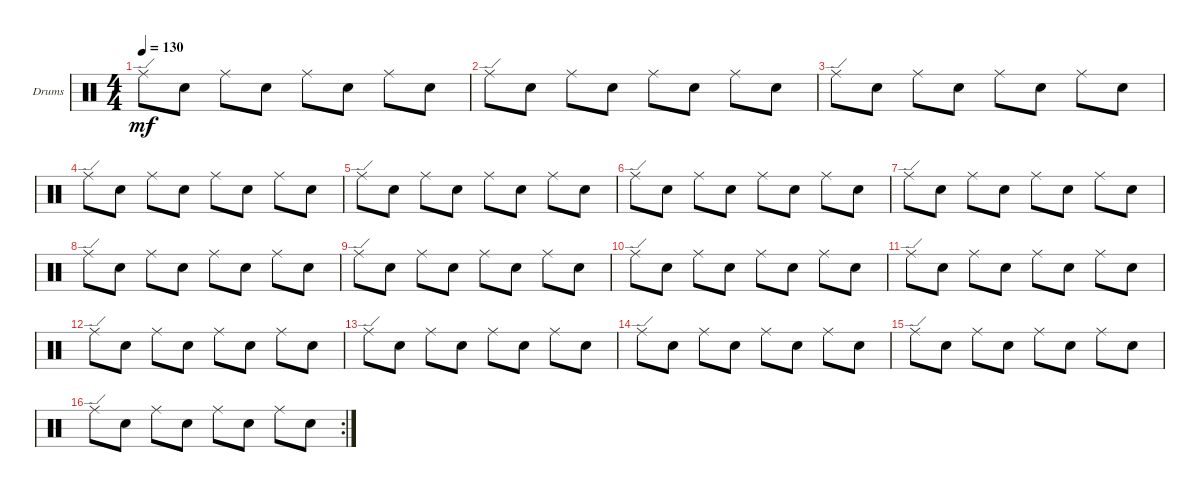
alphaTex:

\defaultSystemsLayout 4
\bracketExtendMode groupsimilarinstruments
\firstSystemTrackNameOrientation horizontal
\otherSystemsTrackNameOrientation horizontal
\track ("Drumkit" "Drums") {instrument percussion}
\staff {score}
\articulation defaults
\ts (4 4)
\tempo 130
\clef neutral
\ks c "Ride (edge)".8{dy mf} "Snare (hit) 2".8 "Ride (middle)".8 "Snare (hit) 2".8 "Ride (middle)".8 "Snare (hit) 2".8 "Ride (middle)".8 "Snare (hit) 2".8
|
"Ride (edge)".8 "Snare (hit) 2".8 "Ride (middle)".8 "Snare (hit) 2".8 "Ride (middle)".8 "Snare (hit) 2".8 "Ride (middle)".8 "Snare (hit) 2".8 |
"Ride (edge)".8 "Snare (hit) 2".8 "Ride (middle)".8 "Snare (hit) 2".8 "Ride (middle)".8 "Snare (hit) 2".8 "Ride (middle)".8 "Snare (hit) 2".8 |
"Ride (edge)".8 "Snare (hit) 2".8 "Ride (middle)".8 "Snare (hit) 2".8 "Ride (middle)".8 "Snare (hit) 2".8 "Ride (middle)".8 "Snare (hit) 2".8 |
"Ride (edge)".8 "Snare (hit) 2".8 "Ride (middle)".8 "Snare (hit) 2".8 "Ride (middle)".8 "Snare (hit) 2".8 "Ride (middle)".8 "Snare (hit) 2".8 |
"Ride (edge)".8 "Snare (hit) 2".8 "Ride (middle)".8 "Snare (hit) 2".8 "Ride (middle)".8 "Snare (hit) 2".8 "Ride (middle)".8 "Snare (hit) 2".8 |
"Ride (edge)".8 "Snare (hit) 2".8 "Ride (middle)".8 "Snare (hit) 2".8 "Ride (middle)".8 "Snare (hit) 2".8 "Ride (middle)".8 "Snare (hit) 2".8 |
"Ride (edge)".8 "Snare (hit) 2".8 "Ride (middle)".8 "Snare (hit) 2".8 "Ride (middle)".8 "Snare (hit) 2".8 "Ride (middle)".8 "Snare (hit) 2".8 |
"Ride (edge)".8 "Snare (hit) 2".8 "Ride (middle)".8 "Snare (hit) 2".8 "Ride (middle)".8 "Snare (hit) 2".8 "Ride (middle)".8 "Snare (hit) 2".8 |
"Ride (edge)".8 "Snare (hit) 2".8 "Ride (middle)".8 "Snare (hit) 2".8 "Ride (middle)".8 "Snare (hit) 2".8 "Ride (middle)".8 "Snare (hit) 2".8 |
"Ride (edge)".8 "Snare (hit) 2".8 "Ride (middle)".8 "Snare (hit) 2".8 "Ride (middle)".8 "Snare (hit) 2".8 "Ride (middle)".8 "Snare (hit) 2".8 |
"Ride (edge)".8 "Snare (hit) 2".8 "Ride (middle)".8 "Snare (hit) 2".8 "Ride (middle)".8 "Snare (hit) 2".8 "Ride (middle)".8 "Snare (hit) 2".8 |
"Ride (edge)".8 "Snare (hit) 2".8 "Ride (middle)".8 "Snare (hit) 2".8 "Ride (middle)".8 "Snare (hit) 2".8 "Ride (middle)".8 "Snare (hit) 2".8 |
"Ride (edge)".8 "Snare (hit) 2".8 "Ride (middle)".8 "Snare (hit) 2".8 "Ride (middle)".8 "Snare (hit) 2".8 "Ride (middle)".8 "Snare (hit) 2".8 |
"Ride (edge)".8 "Snare (hit) 2".8 "Ride (middle)".8 "Snare (hit) 2".8 "Ride (middle)".8 "Snare (hit) 2".8 "Ride (middle)".8 "Snare (hit) 2".8 |
\rc 2 "Ride (edge)".8 "Snare (hit) 2".8 "Ride (middle)".8 "Snare (hit) 2".8 "Ride (middle)".8 "Snare (hit) 2".8 "Ride (middle)".8 "Snare (hit) 2".8
